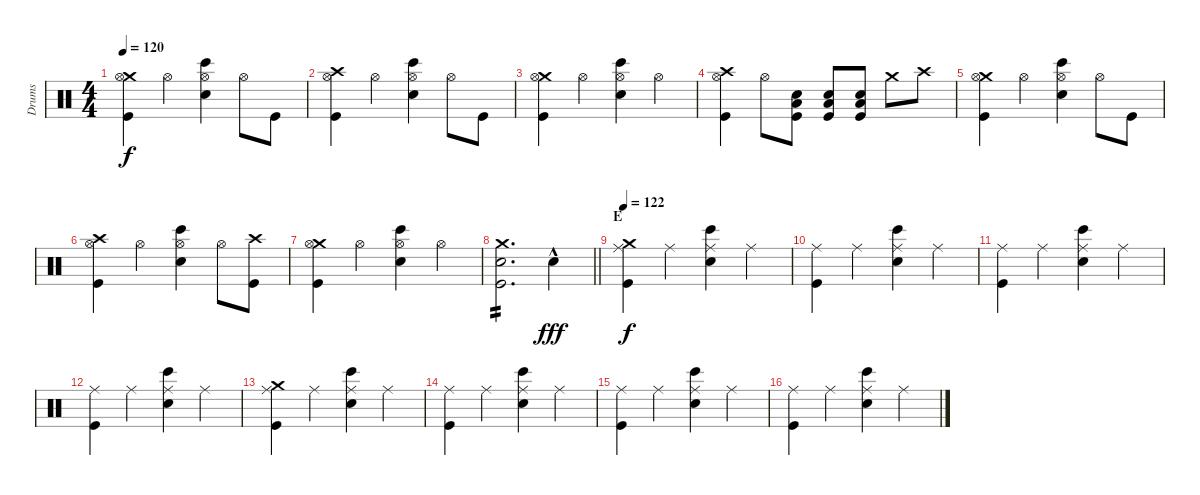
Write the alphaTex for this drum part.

\track ("Drums" "Drums") {instrument percussion}
\staff {score}
\articulation defaults
\ts (4 4)
\tempo 120
\clef neutral
\ks c
("Crash medium (hit)" "Hi-Hat (open)" "Kick (hit)").4{dy f} "Hi-Hat (open)".4 ("Hi-Hat (open)" "Snare (hit) 2" "Bongo High (hit)").4 "Hi-Hat (open)".8 "Kick (hit)".8 |
("Crash high (hit)" "Hi-Hat (open)" "Kick (hit)").4 "Hi-Hat (open)".4 ("Hi-Hat (open)" "Snare (hit) 2" "Bongo High (hit)").4 "Hi-Hat (open)".8 "Kick (hit)".8 |
("Crash medium (hit)" "Hi-Hat (open)" "Kick (hit)").4 "Hi-Hat (open)".4 ("Hi-Hat (open)" "Snare (hit) 2" "Bongo High (hit)").4 "Hi-Hat (open)".4 |
("Crash high (hit)" "Hi-Hat (open)" "Kick (hit)").4 "Hi-Hat (open)".8 ("Snare (hit) 2" "Low Floor Tom (hit)" "Kick (hit)").8 ("Snare (hit) 2" "Low Floor Tom (hit)" "Kick (hit)").8 ("Snare (hit) 2" "Low Floor Tom (hit)" "Kick (hit)").8 "Crash medium (hit)".8 "Crash high (hit)".8 |
("Crash medium (hit)" "Hi-Hat (open)" "Kick (hit)").4 "Hi-Hat (open)".4 ("Hi-Hat (open)" "Snare (hit) 2" "Bongo High (hit)").4 "Hi-Hat (open)".8 "Kick (hit)".8 |
("Crash high (hit)" "Hi-Hat (open)" "Kick (hit)").4 "Hi-Hat (open)".4 ("Hi-Hat (open)" "Snare (hit) 2" "Bongo High (hit)").4 "Hi-Hat (open)".8 ("Crash high (hit)" "Kick (hit)").8 |
("Crash medium (hit)" "Hi-Hat (open)" "Kick (hit)").4 "Hi-Hat (open)".4 ("Hi-Hat (open)" "Snare (hit) 2" "Bongo High (hit)").4 "Hi-Hat (open)".4 |
\barLineRight lightlight
("Crash medium (hit)" "Snare (hit) 2" "Kick (hit)").2{d tp 2} "Snare (hit) 2"{hac}.4{dy fff} |
\section ("" "E")
\tempo 122
("Crash medium (hit)" "Ride (middle)" "Kick (hit)").4{dy f} "Ride (middle)".4 ("Ride (middle)" "Snare (hit) 2" "Bongo High (hit)").4 "Ride (middle)".4 |
("Ride (middle)" "Kick (hit)").4 "Ride (middle)".4 ("Ride (middle)" "Snare (hit) 2" "Bongo High (hit)").4 "Ride (middle)".4 |
("Ride (middle)" "Kick (hit)").4 "Ride (middle)".4 ("Ride (middle)" "Snare (hit) 2" "Bongo High (hit)").4 "Ride (middle)".4 |
("Ride (middle)" "Kick (hit)").4 "Ride (middle)".4 ("Ride (middle)" "Snare (hit) 2" "Bongo High (hit)").4 "Ride (middle)".4 |
("Crash medium (hit)" "Ride (middle)" "Kick (hit)").4 "Ride (middle)".4 ("Ride (middle)" "Snare (hit) 2" "Bongo High (hit)").4 "Ride (middle)".4 |
("Ride (middle)" "Kick (hit)").4 "Ride (middle)".4 ("Ride (middle)" "Snare (hit) 2" "Bongo High (hit)").4 "Ride (middle)".4 |
("Ride (middle)" "Kick (hit)").4 "Ride (middle)".4 ("Ride (middle)" "Snare (hit) 2" "Bongo High (hit)").4 "Ride (middle)".4 |
("Ride (middle)" "Kick (hit)").4 "Ride (middle)".4 ("Ride (middle)" "Snare (hit) 2" "Bongo High (hit)").4 "Ride (middle)".4
